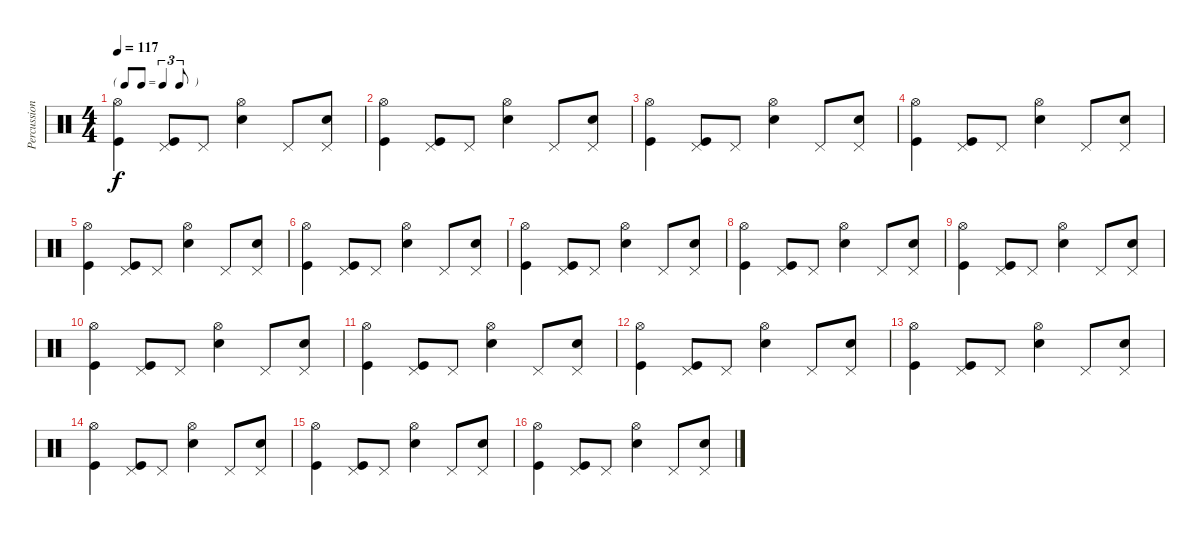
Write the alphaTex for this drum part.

\track ("Percussions" "Percussion") {instrument percussion}
\staff {score}
\articulation defaults
\ts (4 4)
\tf triplet8th
\tempo 117
\clef neutral
\ks c
("Hi-Hat (open)" "Kick (hit)").4{dy f} ("Pedal Hi-Hat (hit)" "Kick (hit)").8 "Pedal Hi-Hat (hit)".8 ("Hi-Hat (open)" "Snare (hit) 2").4 "Pedal Hi-Hat (hit)".8 ("Pedal Hi-Hat (hit)" "Snare (hit) 2").8 |
("Hi-Hat (open)" "Kick (hit)").4 ("Pedal Hi-Hat (hit)" "Kick (hit)").8 "Pedal Hi-Hat (hit)".8 ("Hi-Hat (open)" "Snare (hit) 2").4 "Pedal Hi-Hat (hit)".8 ("Pedal Hi-Hat (hit)" "Snare (hit) 2").8 |
("Hi-Hat (open)" "Kick (hit)").4 ("Pedal Hi-Hat (hit)" "Kick (hit)").8 "Pedal Hi-Hat (hit)".8 ("Hi-Hat (open)" "Snare (hit) 2").4 "Pedal Hi-Hat (hit)".8 ("Pedal Hi-Hat (hit)" "Snare (hit) 2").8 |
("Hi-Hat (open)" "Kick (hit)").4 ("Pedal Hi-Hat (hit)" "Kick (hit)").8 "Pedal Hi-Hat (hit)".8 ("Hi-Hat (open)" "Snare (hit) 2").4 "Pedal Hi-Hat (hit)".8 ("Pedal Hi-Hat (hit)" "Snare (hit) 2").8 |
("Hi-Hat (open)" "Kick (hit)").4 ("Pedal Hi-Hat (hit)" "Kick (hit)").8 "Pedal Hi-Hat (hit)".8 ("Hi-Hat (open)" "Snare (hit) 2").4 "Pedal Hi-Hat (hit)".8 ("Pedal Hi-Hat (hit)" "Snare (hit) 2").8 |
("Hi-Hat (open)" "Kick (hit)").4 ("Pedal Hi-Hat (hit)" "Kick (hit)").8 "Pedal Hi-Hat (hit)".8 ("Hi-Hat (open)" "Snare (hit) 2").4 "Pedal Hi-Hat (hit)".8 ("Pedal Hi-Hat (hit)" "Snare (hit) 2").8 |
("Hi-Hat (open)" "Kick (hit)").4 ("Pedal Hi-Hat (hit)" "Kick (hit)").8 "Pedal Hi-Hat (hit)".8 ("Hi-Hat (open)" "Snare (hit) 2").4 "Pedal Hi-Hat (hit)".8 ("Pedal Hi-Hat (hit)" "Snare (hit) 2").8 |
("Hi-Hat (open)" "Kick (hit)").4 ("Pedal Hi-Hat (hit)" "Kick (hit)").8 "Pedal Hi-Hat (hit)".8 ("Hi-Hat (open)" "Snare (hit) 2").4 "Pedal Hi-Hat (hit)".8 ("Pedal Hi-Hat (hit)" "Snare (hit) 2").8 |
("Hi-Hat (open)" "Kick (hit)").4 ("Pedal Hi-Hat (hit)" "Kick (hit)").8 "Pedal Hi-Hat (hit)".8 ("Hi-Hat (open)" "Snare (hit) 2").4 "Pedal Hi-Hat (hit)".8 ("Pedal Hi-Hat (hit)" "Snare (hit) 2").8 |
("Hi-Hat (open)" "Kick (hit)").4 ("Pedal Hi-Hat (hit)" "Kick (hit)").8 "Pedal Hi-Hat (hit)".8 ("Hi-Hat (open)" "Snare (hit) 2").4 "Pedal Hi-Hat (hit)".8 ("Pedal Hi-Hat (hit)" "Snare (hit) 2").8 |
("Hi-Hat (open)" "Kick (hit)").4 ("Pedal Hi-Hat (hit)" "Kick (hit)").8 "Pedal Hi-Hat (hit)".8 ("Hi-Hat (open)" "Snare (hit) 2").4 "Pedal Hi-Hat (hit)".8 ("Pedal Hi-Hat (hit)" "Snare (hit) 2").8 |
("Hi-Hat (open)" "Kick (hit)").4 ("Pedal Hi-Hat (hit)" "Kick (hit)").8 "Pedal Hi-Hat (hit)".8 ("Hi-Hat (open)" "Snare (hit) 2").4 "Pedal Hi-Hat (hit)".8 ("Pedal Hi-Hat (hit)" "Snare (hit) 2").8 |
("Hi-Hat (open)" "Kick (hit)").4 ("Pedal Hi-Hat (hit)" "Kick (hit)").8 "Pedal Hi-Hat (hit)".8 ("Hi-Hat (open)" "Snare (hit) 2").4 "Pedal Hi-Hat (hit)".8 ("Pedal Hi-Hat (hit)" "Snare (hit) 2").8 |
("Hi-Hat (open)" "Kick (hit)").4 ("Pedal Hi-Hat (hit)" "Kick (hit)").8 "Pedal Hi-Hat (hit)".8 ("Hi-Hat (open)" "Snare (hit) 2").4 "Pedal Hi-Hat (hit)".8 ("Pedal Hi-Hat (hit)" "Snare (hit) 2").8 |
("Hi-Hat (open)" "Kick (hit)").4 ("Pedal Hi-Hat (hit)" "Kick (hit)").8 "Pedal Hi-Hat (hit)".8 ("Hi-Hat (open)" "Snare (hit) 2").4 "Pedal Hi-Hat (hit)".8 ("Pedal Hi-Hat (hit)" "Snare (hit) 2").8 |
("Hi-Hat (open)" "Kick (hit)").4 ("Pedal Hi-Hat (hit)" "Kick (hit)").8 "Pedal Hi-Hat (hit)".8 ("Hi-Hat (open)" "Snare (hit) 2").4 "Pedal Hi-Hat (hit)".8 ("Pedal Hi-Hat (hit)" "Snare (hit) 2").8
